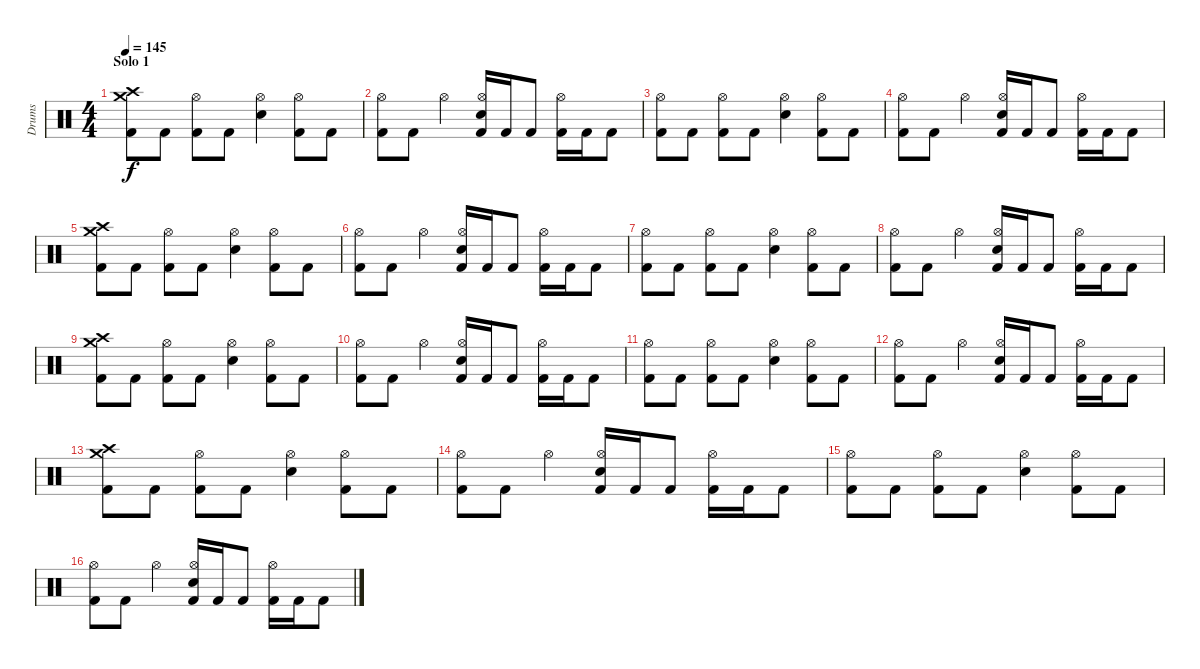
\track ("Drums" "Drums") {instrument percussion}
\staff {score}
\articulation defaults
\ts (4 4)
\section ("" "Solo 1")
\tempo 145
\clef neutral
\ks c
("Crash medium (hit)" "Crash high (hit)" "Kick (hit) 2").8{dy f} "Kick (hit) 2".8 ("Hi-Hat (open)" "Kick (hit) 2").8 "Kick (hit) 2".8 ("Hi-Hat (open)" "Snare (hit) 2").4 ("Hi-Hat (open)" "Kick (hit) 2").8 "Kick (hit) 2".8 |
("Hi-Hat (open)" "Kick (hit) 2").8 "Kick (hit) 2".8 "Hi-Hat (open)".4 ("Hi-Hat (open)" "Snare (hit) 2" "Kick (hit) 2").16 "Kick (hit) 2".16 "Kick (hit) 2".8 ("Hi-Hat (open)" "Kick (hit) 2").16 "Kick (hit) 2".16 "Kick (hit) 2".8 |
("Hi-Hat (open)" "Kick (hit) 2").8 "Kick (hit) 2".8 ("Hi-Hat (open)" "Kick (hit) 2").8 "Kick (hit) 2".8 ("Hi-Hat (open)" "Snare (hit) 2").4 ("Hi-Hat (open)" "Kick (hit) 2").8 "Kick (hit) 2".8 |
("Hi-Hat (open)" "Kick (hit) 2").8 "Kick (hit) 2".8 "Hi-Hat (open)".4 ("Hi-Hat (open)" "Snare (hit) 2" "Kick (hit) 2").16 "Kick (hit) 2".16 "Kick (hit) 2".8 ("Hi-Hat (open)" "Kick (hit) 2").16 "Kick (hit) 2".16 "Kick (hit) 2".8 |
("Crash medium (hit)" "Crash high (hit)" "Kick (hit) 2").8 "Kick (hit) 2".8 ("Hi-Hat (open)" "Kick (hit) 2").8 "Kick (hit) 2".8 ("Hi-Hat (open)" "Snare (hit) 2").4 ("Hi-Hat (open)" "Kick (hit) 2").8 "Kick (hit) 2".8 |
("Hi-Hat (open)" "Kick (hit) 2").8 "Kick (hit) 2".8 "Hi-Hat (open)".4 ("Hi-Hat (open)" "Snare (hit) 2" "Kick (hit) 2").16 "Kick (hit) 2".16 "Kick (hit) 2".8 ("Hi-Hat (open)" "Kick (hit) 2").16 "Kick (hit) 2".16 "Kick (hit) 2".8 |
("Hi-Hat (open)" "Kick (hit) 2").8 "Kick (hit) 2".8 ("Hi-Hat (open)" "Kick (hit) 2").8 "Kick (hit) 2".8 ("Hi-Hat (open)" "Snare (hit) 2").4 ("Hi-Hat (open)" "Kick (hit) 2").8 "Kick (hit) 2".8 |
("Hi-Hat (open)" "Kick (hit) 2").8 "Kick (hit) 2".8 "Hi-Hat (open)".4 ("Hi-Hat (open)" "Snare (hit) 2" "Kick (hit) 2").16 "Kick (hit) 2".16 "Kick (hit) 2".8 ("Hi-Hat (open)" "Kick (hit) 2").16 "Kick (hit) 2".16 "Kick (hit) 2".8 |
("Crash medium (hit)" "Crash high (hit)" "Kick (hit) 2").8 "Kick (hit) 2".8 ("Hi-Hat (open)" "Kick (hit) 2").8 "Kick (hit) 2".8 ("Hi-Hat (open)" "Snare (hit) 2").4 ("Hi-Hat (open)" "Kick (hit) 2").8 "Kick (hit) 2".8 |
("Hi-Hat (open)" "Kick (hit) 2").8 "Kick (hit) 2".8 "Hi-Hat (open)".4 ("Hi-Hat (open)" "Snare (hit) 2" "Kick (hit) 2").16 "Kick (hit) 2".16 "Kick (hit) 2".8 ("Hi-Hat (open)" "Kick (hit) 2").16 "Kick (hit) 2".16 "Kick (hit) 2".8 |
("Hi-Hat (open)" "Kick (hit) 2").8 "Kick (hit) 2".8 ("Hi-Hat (open)" "Kick (hit) 2").8 "Kick (hit) 2".8 ("Hi-Hat (open)" "Snare (hit) 2").4 ("Hi-Hat (open)" "Kick (hit) 2").8 "Kick (hit) 2".8 |
("Hi-Hat (open)" "Kick (hit) 2").8 "Kick (hit) 2".8 "Hi-Hat (open)".4 ("Hi-Hat (open)" "Snare (hit) 2" "Kick (hit) 2").16 "Kick (hit) 2".16 "Kick (hit) 2".8 ("Hi-Hat (open)" "Kick (hit) 2").16 "Kick (hit) 2".16 "Kick (hit) 2".8 |
("Crash medium (hit)" "Crash high (hit)" "Kick (hit) 2").8 "Kick (hit) 2".8 ("Hi-Hat (open)" "Kick (hit) 2").8 "Kick (hit) 2".8 ("Hi-Hat (open)" "Snare (hit) 2").4 ("Hi-Hat (open)" "Kick (hit) 2").8 "Kick (hit) 2".8 |
("Hi-Hat (open)" "Kick (hit) 2").8 "Kick (hit) 2".8 "Hi-Hat (open)".4 ("Hi-Hat (open)" "Snare (hit) 2" "Kick (hit) 2").16 "Kick (hit) 2".16 "Kick (hit) 2".8 ("Hi-Hat (open)" "Kick (hit) 2").16 "Kick (hit) 2".16 "Kick (hit) 2".8 |
("Hi-Hat (open)" "Kick (hit) 2").8 "Kick (hit) 2".8 ("Hi-Hat (open)" "Kick (hit) 2").8 "Kick (hit) 2".8 ("Hi-Hat (open)" "Snare (hit) 2").4 ("Hi-Hat (open)" "Kick (hit) 2").8 "Kick (hit) 2".8 |
("Hi-Hat (open)" "Kick (hit) 2").8 "Kick (hit) 2".8 "Hi-Hat (open)".4 ("Hi-Hat (open)" "Snare (hit) 2" "Kick (hit) 2").16 "Kick (hit) 2".16 "Kick (hit) 2".8 ("Hi-Hat (open)" "Kick (hit) 2").16 "Kick (hit) 2".16 "Kick (hit) 2".8
